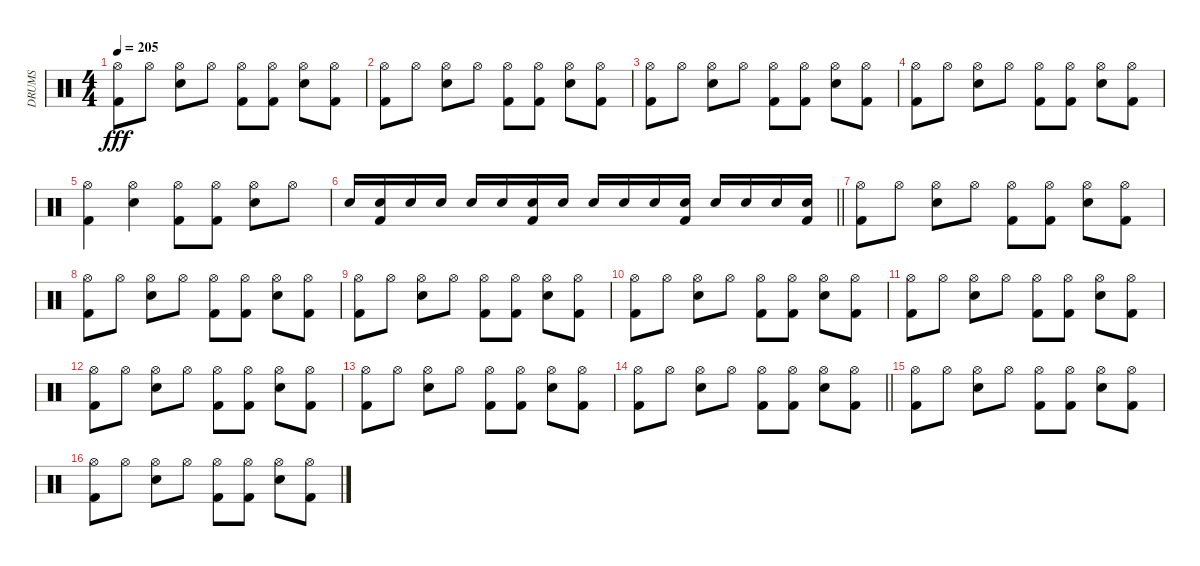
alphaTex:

\track ("DRUMS" "DRUMS") {instrument percussion}
\staff {score}
\articulation defaults
\ts (4 4)
\tempo 205
\clef neutral
\ks c
("Hi-Hat (open)" "Kick (hit) 2").8{dy fff} "Hi-Hat (open)".8 ("Hi-Hat (open)" "Electric Snare (hit)").8 "Hi-Hat (open)".8 ("Hi-Hat (open)" "Kick (hit) 2").8 ("Hi-Hat (open)" "Kick (hit) 2").8 ("Hi-Hat (open)" "Electric Snare (hit)").8 ("Hi-Hat (open)" "Kick (hit) 2").8 |
("Hi-Hat (open)" "Kick (hit) 2").8 "Hi-Hat (open)".8 ("Hi-Hat (open)" "Electric Snare (hit)").8 "Hi-Hat (open)".8 ("Hi-Hat (open)" "Kick (hit) 2").8 ("Hi-Hat (open)" "Kick (hit) 2").8 ("Hi-Hat (open)" "Electric Snare (hit)").8 ("Hi-Hat (open)" "Kick (hit) 2").8 |
("Hi-Hat (open)" "Kick (hit) 2").8 "Hi-Hat (open)".8 ("Hi-Hat (open)" "Electric Snare (hit)").8 "Hi-Hat (open)".8 ("Hi-Hat (open)" "Kick (hit) 2").8 ("Hi-Hat (open)" "Kick (hit) 2").8 ("Hi-Hat (open)" "Electric Snare (hit)").8 ("Hi-Hat (open)" "Kick (hit) 2").8 |
("Hi-Hat (open)" "Kick (hit) 2").8 "Hi-Hat (open)".8 ("Hi-Hat (open)" "Electric Snare (hit)").8 "Hi-Hat (open)".8 ("Hi-Hat (open)" "Kick (hit) 2").8 ("Hi-Hat (open)" "Kick (hit) 2").8 ("Hi-Hat (open)" "Electric Snare (hit)").8 ("Hi-Hat (open)" "Kick (hit) 2").8 |
("Hi-Hat (open)" "Kick (hit) 2").4 ("Hi-Hat (open)" "Electric Snare (hit)").4 ("Hi-Hat (open)" "Kick (hit) 2").8 ("Hi-Hat (open)" "Kick (hit) 2").8 ("Hi-Hat (open)" "Electric Snare (hit)").8 "Hi-Hat (open)".8 |
\barLineRight lightlight "Electric Snare (hit)".16
("Electric Snare (hit)" "Kick (hit) 2").16 "Electric Snare (hit)".16 "Electric Snare (hit)".16 "Electric Snare (hit)".16 "Electric Snare (hit)".16 ("Electric Snare (hit)" "Kick (hit) 2").16 "Electric Snare (hit)".16 "Electric Snare (hit)".16 "Electric Snare (hit)".16 "Electric Snare (hit)".16 ("Electric Snare (hit)" "Kick (hit) 2").16 "Electric Snare (hit)".16 "Electric Snare (hit)".16 "Electric Snare (hit)".16 ("Electric Snare (hit)" "Kick (hit) 2").16 |
("Hi-Hat (open)" "Kick (hit) 2").8 "Hi-Hat (open)".8 ("Hi-Hat (open)" "Electric Snare (hit)").8 "Hi-Hat (open)".8 ("Hi-Hat (open)" "Kick (hit) 2").8 ("Hi-Hat (open)" "Kick (hit) 2").8 ("Hi-Hat (open)" "Electric Snare (hit)").8 ("Hi-Hat (open)" "Kick (hit) 2").8 |
("Hi-Hat (open)" "Kick (hit) 2").8 "Hi-Hat (open)".8 ("Hi-Hat (open)" "Electric Snare (hit)").8 "Hi-Hat (open)".8 ("Hi-Hat (open)" "Kick (hit) 2").8 ("Hi-Hat (open)" "Kick (hit) 2").8 ("Hi-Hat (open)" "Electric Snare (hit)").8 ("Hi-Hat (open)" "Kick (hit) 2").8 |
("Hi-Hat (open)" "Kick (hit) 2").8 "Hi-Hat (open)".8 ("Hi-Hat (open)" "Electric Snare (hit)").8 "Hi-Hat (open)".8 ("Hi-Hat (open)" "Kick (hit) 2").8 ("Hi-Hat (open)" "Kick (hit) 2").8 ("Hi-Hat (open)" "Electric Snare (hit)").8 ("Hi-Hat (open)" "Kick (hit) 2").8 |
("Hi-Hat (open)" "Kick (hit) 2").8 "Hi-Hat (open)".8 ("Hi-Hat (open)" "Electric Snare (hit)").8 "Hi-Hat (open)".8 ("Hi-Hat (open)" "Kick (hit) 2").8 ("Hi-Hat (open)" "Kick (hit) 2").8 ("Hi-Hat (open)" "Electric Snare (hit)").8 ("Hi-Hat (open)" "Kick (hit) 2").8 |
("Hi-Hat (open)" "Kick (hit) 2").8 "Hi-Hat (open)".8 ("Hi-Hat (open)" "Electric Snare (hit)").8 "Hi-Hat (open)".8 ("Hi-Hat (open)" "Kick (hit) 2").8 ("Hi-Hat (open)" "Kick (hit) 2").8 ("Hi-Hat (open)" "Electric Snare (hit)").8 ("Hi-Hat (open)" "Kick (hit) 2").8 |
("Hi-Hat (open)" "Kick (hit) 2").8 "Hi-Hat (open)".8 ("Hi-Hat (open)" "Electric Snare (hit)").8 "Hi-Hat (open)".8 ("Hi-Hat (open)" "Kick (hit) 2").8 ("Hi-Hat (open)" "Kick (hit) 2").8 ("Hi-Hat (open)" "Electric Snare (hit)").8 ("Hi-Hat (open)" "Kick (hit) 2").8 |
("Hi-Hat (open)" "Kick (hit) 2").8 "Hi-Hat (open)".8 ("Hi-Hat (open)" "Electric Snare (hit)").8 "Hi-Hat (open)".8 ("Hi-Hat (open)" "Kick (hit) 2").8 ("Hi-Hat (open)" "Kick (hit) 2").8 ("Hi-Hat (open)" "Electric Snare (hit)").8 ("Hi-Hat (open)" "Kick (hit) 2").8 |
\barLineRight lightlight
("Hi-Hat (open)" "Kick (hit) 2").8 "Hi-Hat (open)".8 ("Hi-Hat (open)" "Electric Snare (hit)").8 "Hi-Hat (open)".8 ("Hi-Hat (open)" "Kick (hit) 2").8 ("Hi-Hat (open)" "Kick (hit) 2").8 ("Hi-Hat (open)" "Electric Snare (hit)").8 ("Hi-Hat (open)" "Kick (hit) 2").8 |
("Hi-Hat (open)" "Kick (hit) 2").8 "Hi-Hat (open)".8 ("Hi-Hat (open)" "Electric Snare (hit)").8 "Hi-Hat (open)".8 ("Hi-Hat (open)" "Kick (hit) 2").8 ("Hi-Hat (open)" "Kick (hit) 2").8 ("Hi-Hat (open)" "Electric Snare (hit)").8 ("Hi-Hat (open)" "Kick (hit) 2").8 |
("Hi-Hat (open)" "Kick (hit) 2").8 "Hi-Hat (open)".8 ("Hi-Hat (open)" "Electric Snare (hit)").8 "Hi-Hat (open)".8 ("Hi-Hat (open)" "Kick (hit) 2").8 ("Hi-Hat (open)" "Kick (hit) 2").8 ("Hi-Hat (open)" "Electric Snare (hit)").8 ("Hi-Hat (open)" "Kick (hit) 2").8
